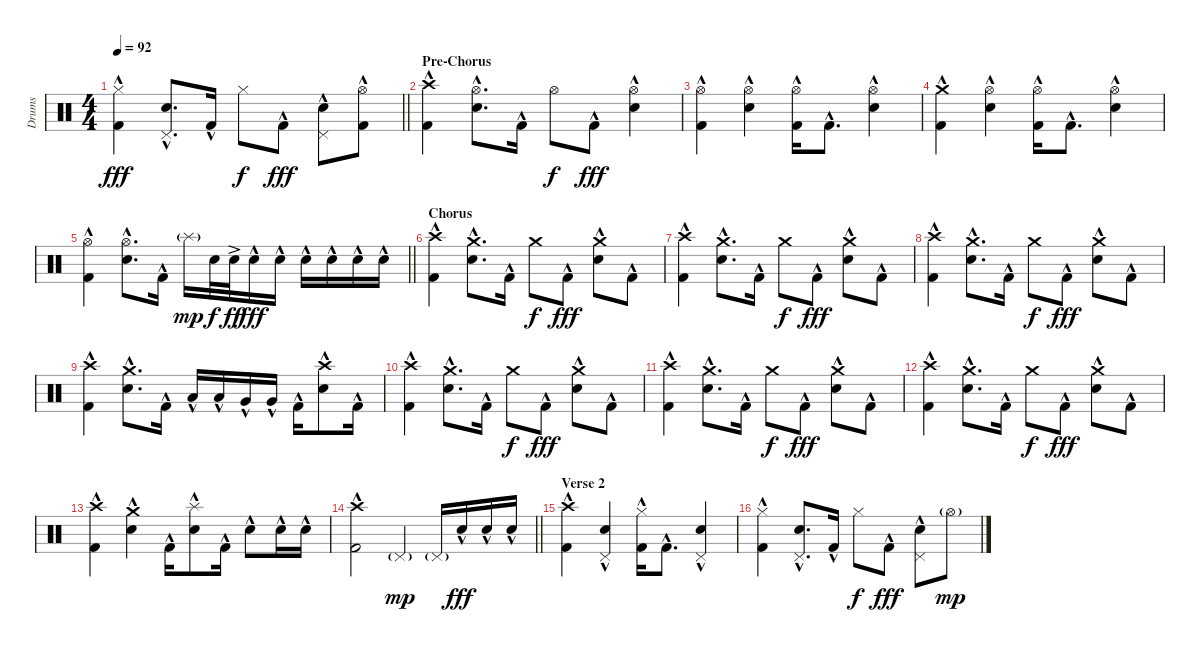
\track ("Drums" "Drums") {instrument percussion}
\staff {score}
\articulation defaults
\ts (4 4)
\tempo 92
\clef neutral
\barLineRight lightlight
\ks c
("Hi-Hat (closed)" "Kick (hit) 2"{hac}).4{dy fff} ("Pedal Hi-Hat (hit)" "Electric Snare (hit)"{hac}).8{d} "Kick (hit) 2"{hac}.16 "Hi-Hat (closed)".8{dy f} "Kick (hit) 2"{hac}.8{dy fff} ("Pedal Hi-Hat (hit)" "Electric Snare (hit)"{hac}).8 ("Hi-Hat (open)" "Kick (hit) 2"{hac}).8 |
\section ("" "Pre-Chorus")
("Crash high (hit)" "Kick (hit) 2"{hac}).4 ("Hi-Hat (open)" "Electric Snare (hit)"{hac}).8{d} "Kick (hit) 2"{hac}.16 "Hi-Hat (open)".8{dy f} "Kick (hit) 2"{hac}.8{dy fff} ("Hi-Hat (open)" "Electric Snare (hit)"{hac}).4 |
("Hi-Hat (open)" "Kick (hit) 2"{hac}).4 ("Hi-Hat (open)" "Electric Snare (hit)"{hac}).4 ("Hi-Hat (open)" "Kick (hit) 2"{hac}).16 "Kick (hit) 2"{hac}.8{d} ("Hi-Hat (open)" "Electric Snare (hit)"{hac}).4 |
("Crash medium (hit)" "Kick (hit) 2"{hac}).4 ("Hi-Hat (open)" "Electric Snare (hit)"{hac}).4 ("Hi-Hat (open)" "Kick (hit) 2"{hac}).16 "Kick (hit) 2"{hac}.8{d} ("Hi-Hat (open)" "Electric Snare (hit)"{hac}).4 |
\barLineRight lightlight
("Hi-Hat (open)" "Kick (hit) 2"{hac}).4 ("Hi-Hat (open)" "Electric Snare (hit)"{hac}).8{d} "Kick (hit) 2"{hac}.16 "Splash (hit)"{g}.16{dy mp} "Electric Snare (hit)".32{dy f} "Electric Snare (hit)"{ac}.32{dy ff} "Electric Snare (hit)"{hac}.16{dy fff} "Electric Snare (hit)"{hac}.16 "Electric Snare (hit)"{hac}.16 "Electric Snare (hit)"{hac}.16 "Electric Snare (hit)"{hac}.16 "Electric Snare (hit)"{hac}.16 |
\section ("" "Chorus")
("Crash high (hit)" "Kick (hit) 2"{hac}).4 ("Crash medium (hit)" "Electric Snare (hit)"{hac}).8{d} "Kick (hit) 2"{hac}.16 "Crash medium (hit)".8{dy f} "Kick (hit) 2"{hac}.8{dy fff} ("Crash medium (hit)" "Electric Snare (hit)"{hac}).8 "Kick (hit) 2"{hac}.8 |
("Crash high (hit)" "Kick (hit) 2"{hac}).4 ("Crash medium (hit)" "Electric Snare (hit)"{hac}).8{d} "Kick (hit) 2"{hac}.16 "Crash medium (hit)".8{dy f} "Kick (hit) 2"{hac}.8{dy fff} ("Crash medium (hit)" "Electric Snare (hit)"{hac}).8 "Kick (hit) 2"{hac}.8 |
("Crash high (hit)" "Kick (hit) 2"{hac}).4 ("Crash medium (hit)" "Electric Snare (hit)"{hac}).8{d} "Kick (hit) 2"{hac}.16 "Crash medium (hit)".8{dy f} "Kick (hit) 2"{hac}.8{dy fff} ("Crash medium (hit)" "Electric Snare (hit)"{hac}).8 "Kick (hit) 2"{hac}.8 |
("Crash high (hit)" "Kick (hit) 2"{hac}).4 ("Crash medium (hit)" "Electric Snare (hit)"{hac}).8{d} "Kick (hit) 2"{hac}.16 "Low Floor Tom (hit)"{hac}.16 "Low Floor Tom (hit)"{hac}.16 "Very Low Tom (hit)"{hac}.16 "Very Low Tom (hit)"{hac}.16 "Kick (hit) 2"{hac}.16 ("Crash high (hit)" "Electric Snare (hit)"{hac}).8 "Kick (hit) 2"{hac}.16 |
("Crash high (hit)" "Kick (hit) 2"{hac}).4 ("Crash medium (hit)" "Electric Snare (hit)"{hac}).8{d} "Kick (hit) 2"{hac}.16 "Crash medium (hit)".8{dy f} "Kick (hit) 2"{hac}.8{dy fff} ("Crash medium (hit)" "Electric Snare (hit)"{hac}).8 "Kick (hit) 2"{hac}.8 |
("Crash high (hit)" "Kick (hit) 2"{hac}).4 ("Crash medium (hit)" "Electric Snare (hit)"{hac}).8{d} "Kick (hit) 2"{hac}.16 "Crash medium (hit)".8{dy f} "Kick (hit) 2"{hac}.8{dy fff} ("Crash medium (hit)" "Electric Snare (hit)"{hac}).8 "Kick (hit) 2"{hac}.8 |
("Crash high (hit)" "Kick (hit) 2"{hac}).4 ("Crash medium (hit)" "Electric Snare (hit)"{hac}).8{d} "Kick (hit) 2"{hac}.16 "Crash medium (hit)".8{dy f} "Kick (hit) 2"{hac}.8{dy fff} ("Crash medium (hit)" "Electric Snare (hit)"{hac}).8 "Kick (hit) 2"{hac}.8 |
("Crash high (hit)" "Kick (hit) 2"{hac}).4 ("Crash medium (hit)" "Electric Snare (hit)"{hac}).4 "Kick (hit) 2"{hac}.16 ("Splash (hit)" "Electric Snare (hit)"{hac}).8 "Kick (hit) 2"{hac}.16 "Electric Snare (hit)"{hac}.8 "Electric Snare (hit)"{hac}.16 "Electric Snare (hit)"{hac}.16 |
\barLineRight lightlight
("Crash high (hit)" "Kick (hit) 2"{hac}).2 "Pedal Hi-Hat (hit)"{g}.4{dy mp} "Pedal Hi-Hat (hit)"{g}.16 "Electric Snare (hit)"{hac}.16{dy fff} "Electric Snare (hit)"{hac}.16 "Electric Snare (hit)"{hac}.16 |
\section ("" "Verse 2")
("Crash high (hit)" "Kick (hit) 2"{hac}).4 ("Pedal Hi-Hat (hit)" "Electric Snare (hit)"{hac}).4 ("Hi-Hat (closed)" "Kick (hit) 2"{hac}).16 "Kick (hit) 2"{hac}.8{d} ("Pedal Hi-Hat (hit)" "Electric Snare (hit)"{hac}).4 |
("Hi-Hat (closed)" "Kick (hit) 2"{hac}).4 ("Pedal Hi-Hat (hit)" "Electric Snare (hit)"{hac}).8{d} "Kick (hit) 2"{hac}.16 "Hi-Hat (closed)".8{dy f} "Kick (hit) 2"{hac}.8{dy fff} ("Pedal Hi-Hat (hit)" "Electric Snare (hit)"{hac}).8 "Hi-Hat (open)"{g}.8{dy mp}
